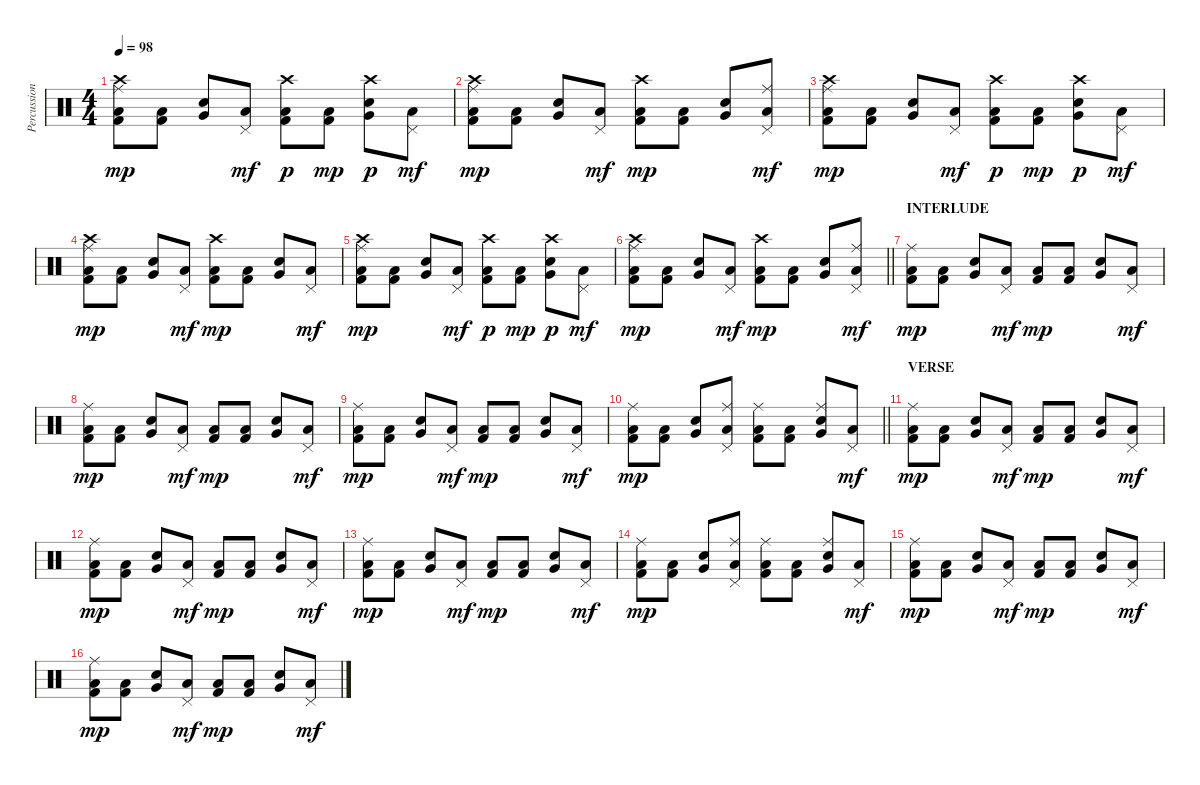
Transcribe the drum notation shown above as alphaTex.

\track ("Percussion" "Percussion") {instrument percussion}
\staff {score}
\articulation defaults
\ts (4 4)
\tempo 98
\clef neutral
\ks c
("Kick (hit) 2" "Low Floor Tom (hit)" "Crash high (hit)" "Ride (middle)").8{dy mp} ("Kick (hit) 2" "Low Floor Tom (hit)").8 ("Snare (hit) 2" "Very Low Tom (hit)").8 ("Low Floor Tom (hit)" "Pedal Hi-Hat (hit)").8{dy mf} ("Kick (hit) 2" "Low Floor Tom (hit)" "Crash high (hit)").8{dy p} ("Kick (hit) 2" "Low Floor Tom (hit)").8{dy mp} ("Snare (hit) 2" "Very Low Tom (hit)" "Crash high (hit)").8{dy p} ("Low Floor Tom (hit)" "Pedal Hi-Hat (hit)").8{dy mf} |
("Kick (hit) 2" "Low Floor Tom (hit)" "Crash high (hit)" "Ride (middle)").8{dy mp} ("Kick (hit) 2" "Low Floor Tom (hit)").8 ("Snare (hit) 2" "Very Low Tom (hit)").8 ("Low Floor Tom (hit)" "Pedal Hi-Hat (hit)").8{dy mf} ("Kick (hit) 2" "Low Floor Tom (hit)" "Crash high (hit)").8{dy mp} ("Kick (hit) 2" "Low Floor Tom (hit)").8 ("Snare (hit) 2" "Very Low Tom (hit)").8 ("Low Floor Tom (hit)" "Ride (middle)" "Pedal Hi-Hat (hit)").8{dy mf} |
("Kick (hit) 2" "Low Floor Tom (hit)" "Crash high (hit)" "Ride (middle)").8{dy mp} ("Kick (hit) 2" "Low Floor Tom (hit)").8 ("Snare (hit) 2" "Very Low Tom (hit)").8 ("Low Floor Tom (hit)" "Pedal Hi-Hat (hit)").8{dy mf} ("Kick (hit) 2" "Low Floor Tom (hit)" "Crash high (hit)").8{dy p} ("Kick (hit) 2" "Low Floor Tom (hit)").8{dy mp} ("Snare (hit) 2" "Very Low Tom (hit)" "Crash high (hit)").8{dy p} ("Low Floor Tom (hit)" "Pedal Hi-Hat (hit)").8{dy mf} |
("Kick (hit) 2" "Low Floor Tom (hit)" "Crash high (hit)" "Ride (middle)").8{dy mp} ("Kick (hit) 2" "Low Floor Tom (hit)").8 ("Snare (hit) 2" "Very Low Tom (hit)").8 ("Low Floor Tom (hit)" "Pedal Hi-Hat (hit)").8{dy mf} ("Kick (hit) 2" "Low Floor Tom (hit)" "Crash high (hit)").8{dy mp} ("Kick (hit) 2" "Low Floor Tom (hit)").8 ("Snare (hit) 2" "Very Low Tom (hit)").8 ("Low Floor Tom (hit)" "Pedal Hi-Hat (hit)").8{dy mf} |
("Kick (hit) 2" "Low Floor Tom (hit)" "Crash high (hit)" "Ride (middle)").8{dy mp} ("Kick (hit) 2" "Low Floor Tom (hit)").8 ("Snare (hit) 2" "Very Low Tom (hit)").8 ("Low Floor Tom (hit)" "Pedal Hi-Hat (hit)").8{dy mf} ("Kick (hit) 2" "Low Floor Tom (hit)" "Crash high (hit)").8{dy p} ("Kick (hit) 2" "Low Floor Tom (hit)").8{dy mp} ("Snare (hit) 2" "Very Low Tom (hit)" "Crash high (hit)").8{dy p} ("Low Floor Tom (hit)" "Pedal Hi-Hat (hit)").8{dy mf} |
\barLineRight lightlight
("Kick (hit) 2" "Low Floor Tom (hit)" "Crash high (hit)" "Ride (middle)").8{dy mp} ("Kick (hit) 2" "Low Floor Tom (hit)").8 ("Snare (hit) 2" "Very Low Tom (hit)").8 ("Low Floor Tom (hit)" "Pedal Hi-Hat (hit)").8{dy mf} ("Kick (hit) 2" "Low Floor Tom (hit)" "Crash high (hit)").8{dy mp} ("Kick (hit) 2" "Low Floor Tom (hit)").8 ("Snare (hit) 2" "Very Low Tom (hit)").8 ("Low Floor Tom (hit)" "Ride (middle)" "Pedal Hi-Hat (hit)").8{dy mf} |
\section ("" "INTERLUDE")
("Kick (hit) 2" "Low Floor Tom (hit)" "Ride (middle)").8{dy mp} ("Kick (hit) 2" "Low Floor Tom (hit)").8 ("Snare (hit) 2" "Very Low Tom (hit)").8 ("Low Floor Tom (hit)" "Pedal Hi-Hat (hit)").8{dy mf} ("Kick (hit) 2" "Low Floor Tom (hit)").8{dy mp} ("Kick (hit) 2" "Low Floor Tom (hit)").8 ("Snare (hit) 2" "Very Low Tom (hit)").8 ("Low Floor Tom (hit)" "Pedal Hi-Hat (hit)").8{dy mf} |
("Kick (hit) 2" "Low Floor Tom (hit)" "Ride (middle)").8{dy mp} ("Kick (hit) 2" "Low Floor Tom (hit)").8 ("Snare (hit) 2" "Very Low Tom (hit)").8 ("Low Floor Tom (hit)" "Pedal Hi-Hat (hit)").8{dy mf} ("Kick (hit) 2" "Low Floor Tom (hit)").8{dy mp} ("Kick (hit) 2" "Low Floor Tom (hit)").8 ("Snare (hit) 2" "Very Low Tom (hit)").8 ("Low Floor Tom (hit)" "Pedal Hi-Hat (hit)").8{dy mf} |
("Kick (hit) 2" "Low Floor Tom (hit)" "Ride (middle)").8{dy mp} ("Kick (hit) 2" "Low Floor Tom (hit)").8 ("Snare (hit) 2" "Very Low Tom (hit)").8 ("Low Floor Tom (hit)" "Pedal Hi-Hat (hit)").8{dy mf} ("Kick (hit) 2" "Low Floor Tom (hit)").8{dy mp} ("Kick (hit) 2" "Low Floor Tom (hit)").8 ("Snare (hit) 2" "Very Low Tom (hit)").8 ("Low Floor Tom (hit)" "Pedal Hi-Hat (hit)").8{dy mf} |
\barLineRight lightlight
("Kick (hit) 2" "Low Floor Tom (hit)" "Ride (middle)").8{dy mp} ("Kick (hit) 2" "Low Floor Tom (hit)").8 ("Snare (hit) 2" "Very Low Tom (hit)").8 ("Low Floor Tom (hit)" "Pedal Hi-Hat (hit)" "Ride (middle)").8 ("Kick (hit) 2" "Low Floor Tom (hit)" "Ride (middle)").8 ("Kick (hit) 2" "Low Floor Tom (hit)").8 ("Snare (hit) 2" "Very Low Tom (hit)" "Ride (middle)").8 ("Low Floor Tom (hit)" "Pedal Hi-Hat (hit)").8{dy mf} |
\section ("" "VERSE")
("Kick (hit) 2" "Low Floor Tom (hit)" "Ride (middle)").8{dy mp} ("Kick (hit) 2" "Low Floor Tom (hit)").8 ("Snare (hit) 2" "Very Low Tom (hit)").8 ("Low Floor Tom (hit)" "Pedal Hi-Hat (hit)").8{dy mf} ("Kick (hit) 2" "Low Floor Tom (hit)").8{dy mp} ("Kick (hit) 2" "Low Floor Tom (hit)").8 ("Snare (hit) 2" "Very Low Tom (hit)").8 ("Low Floor Tom (hit)" "Pedal Hi-Hat (hit)").8{dy mf} |
("Kick (hit) 2" "Low Floor Tom (hit)" "Ride (middle)").8{dy mp} ("Kick (hit) 2" "Low Floor Tom (hit)").8 ("Snare (hit) 2" "Very Low Tom (hit)").8 ("Low Floor Tom (hit)" "Pedal Hi-Hat (hit)").8{dy mf} ("Kick (hit) 2" "Low Floor Tom (hit)").8{dy mp} ("Kick (hit) 2" "Low Floor Tom (hit)").8 ("Snare (hit) 2" "Very Low Tom (hit)").8 ("Low Floor Tom (hit)" "Pedal Hi-Hat (hit)").8{dy mf} |
("Kick (hit) 2" "Low Floor Tom (hit)" "Ride (middle)").8{dy mp} ("Kick (hit) 2" "Low Floor Tom (hit)").8 ("Snare (hit) 2" "Very Low Tom (hit)").8 ("Low Floor Tom (hit)" "Pedal Hi-Hat (hit)").8{dy mf} ("Kick (hit) 2" "Low Floor Tom (hit)").8{dy mp} ("Kick (hit) 2" "Low Floor Tom (hit)").8 ("Snare (hit) 2" "Very Low Tom (hit)").8 ("Low Floor Tom (hit)" "Pedal Hi-Hat (hit)").8{dy mf} |
("Kick (hit) 2" "Low Floor Tom (hit)" "Ride (middle)").8{dy mp} ("Kick (hit) 2" "Low Floor Tom (hit)").8 ("Snare (hit) 2" "Very Low Tom (hit)").8 ("Low Floor Tom (hit)" "Pedal Hi-Hat (hit)" "Ride (middle)").8 ("Kick (hit) 2" "Low Floor Tom (hit)" "Ride (middle)").8 ("Kick (hit) 2" "Low Floor Tom (hit)").8 ("Snare (hit) 2" "Very Low Tom (hit)" "Ride (middle)").8 ("Low Floor Tom (hit)" "Pedal Hi-Hat (hit)").8{dy mf} |
("Kick (hit) 2" "Low Floor Tom (hit)" "Ride (middle)").8{dy mp} ("Kick (hit) 2" "Low Floor Tom (hit)").8 ("Snare (hit) 2" "Very Low Tom (hit)").8 ("Low Floor Tom (hit)" "Pedal Hi-Hat (hit)").8{dy mf} ("Kick (hit) 2" "Low Floor Tom (hit)").8{dy mp} ("Kick (hit) 2" "Low Floor Tom (hit)").8 ("Snare (hit) 2" "Very Low Tom (hit)").8 ("Low Floor Tom (hit)" "Pedal Hi-Hat (hit)").8{dy mf} |
("Kick (hit) 2" "Low Floor Tom (hit)" "Ride (middle)").8{dy mp} ("Kick (hit) 2" "Low Floor Tom (hit)").8 ("Snare (hit) 2" "Very Low Tom (hit)").8 ("Low Floor Tom (hit)" "Pedal Hi-Hat (hit)").8{dy mf} ("Kick (hit) 2" "Low Floor Tom (hit)").8{dy mp} ("Kick (hit) 2" "Low Floor Tom (hit)").8 ("Snare (hit) 2" "Very Low Tom (hit)").8 ("Low Floor Tom (hit)" "Pedal Hi-Hat (hit)").8{dy mf}
